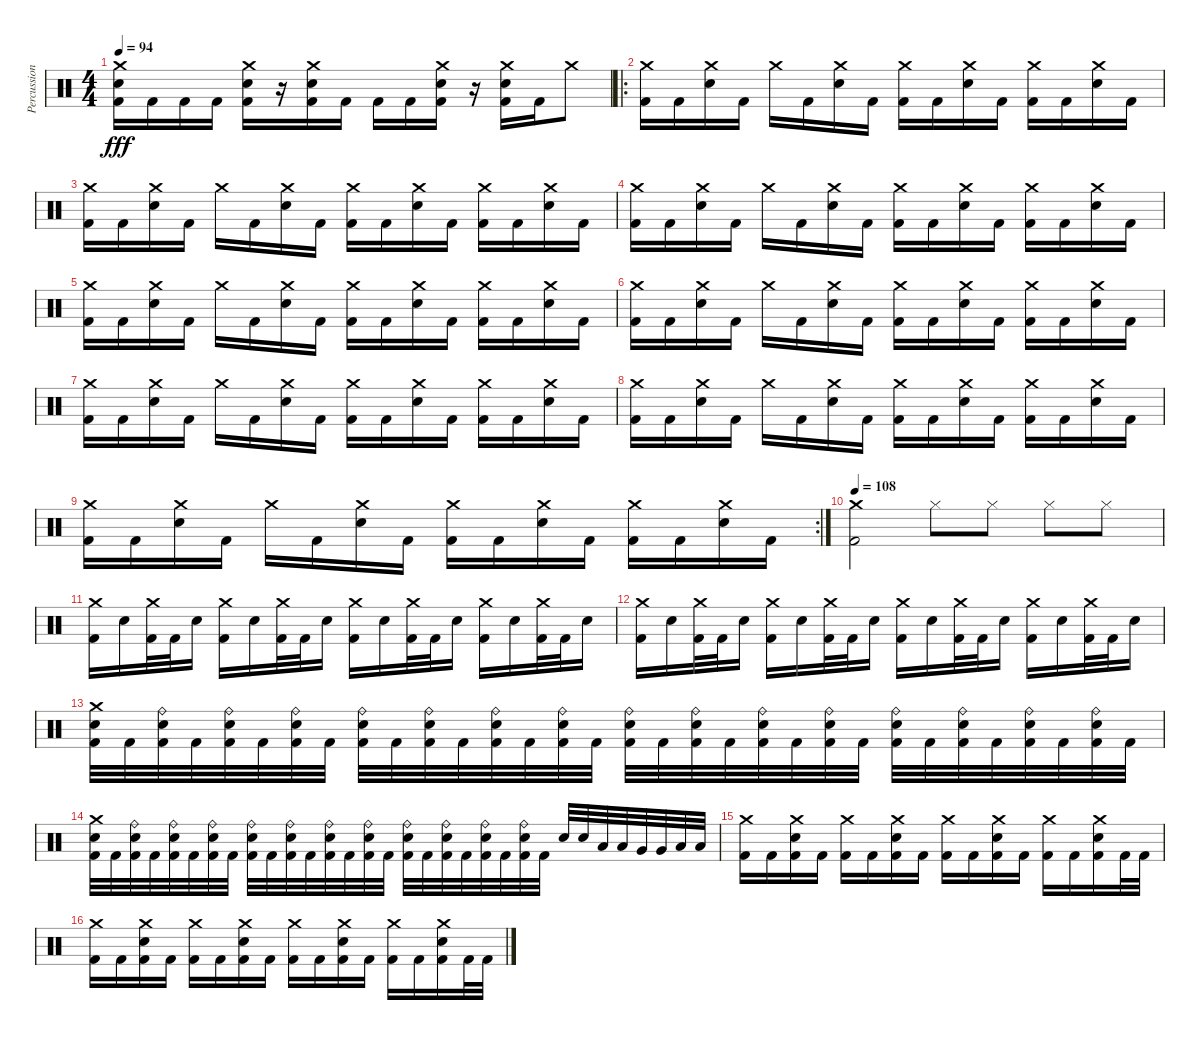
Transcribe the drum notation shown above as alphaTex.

\track ("Percussion" "Percussion") {instrument percussion}
\staff {score}
\articulation defaults
\ts (4 4)
\tempo 94
\clef neutral
\ks c
("Crash medium (hit)" "Electric Snare (hit)" "Kick (hit) 2").16{dy fff} "Kick (hit) 2".16 "Kick (hit) 2".16 "Kick (hit) 2".16 ("Crash medium (hit)" "Electric Snare (hit)" "Kick (hit) 2").16 r.16 ("Crash medium (hit)" "Electric Snare (hit)" "Kick (hit) 2").16 "Kick (hit) 2".16 "Kick (hit) 2".16 "Kick (hit) 2".16 ("Crash medium (hit)" "Electric Snare (hit)" "Kick (hit) 2").16 r.16 ("Crash medium (hit)" "Electric Snare (hit)" "Kick (hit) 2").16 "Kick (hit) 2".16 "Crash medium (hit)".8 |
\ro
("Crash medium (hit)" "Kick (hit) 2").16 "Kick (hit) 2".16 ("Crash medium (hit)" "Electric Snare (hit)").16 "Kick (hit) 2".16 "Crash medium (hit)".16 "Kick (hit) 2".16 ("Crash medium (hit)" "Electric Snare (hit)").16 "Kick (hit) 2".16 ("Crash medium (hit)" "Kick (hit) 2").16 "Kick (hit) 2".16 ("Crash medium (hit)" "Electric Snare (hit)").16 "Kick (hit) 2".16 ("Crash medium (hit)" "Kick (hit) 2").16 "Kick (hit) 2".16 ("Crash medium (hit)" "Electric Snare (hit)").16 "Kick (hit) 2".16 |
("Crash medium (hit)" "Kick (hit) 2").16 "Kick (hit) 2".16 ("Crash medium (hit)" "Electric Snare (hit)").16 "Kick (hit) 2".16 "Crash medium (hit)".16 "Kick (hit) 2".16 ("Crash medium (hit)" "Electric Snare (hit)").16 "Kick (hit) 2".16 ("Crash medium (hit)" "Kick (hit) 2").16 "Kick (hit) 2".16 ("Crash medium (hit)" "Electric Snare (hit)").16 "Kick (hit) 2".16 ("Crash medium (hit)" "Kick (hit) 2").16 "Kick (hit) 2".16 ("Crash medium (hit)" "Electric Snare (hit)").16 "Kick (hit) 2".16 |
("Crash medium (hit)" "Kick (hit) 2").16 "Kick (hit) 2".16 ("Crash medium (hit)" "Electric Snare (hit)").16 "Kick (hit) 2".16 "Crash medium (hit)".16 "Kick (hit) 2".16 ("Crash medium (hit)" "Electric Snare (hit)").16 "Kick (hit) 2".16 ("Crash medium (hit)" "Kick (hit) 2").16 "Kick (hit) 2".16 ("Crash medium (hit)" "Electric Snare (hit)").16 "Kick (hit) 2".16 ("Crash medium (hit)" "Kick (hit) 2").16 "Kick (hit) 2".16 ("Crash medium (hit)" "Electric Snare (hit)").16 "Kick (hit) 2".16 |
("Crash medium (hit)" "Kick (hit) 2").16 "Kick (hit) 2".16 ("Crash medium (hit)" "Electric Snare (hit)").16 "Kick (hit) 2".16 "Crash medium (hit)".16 "Kick (hit) 2".16 ("Crash medium (hit)" "Electric Snare (hit)").16 "Kick (hit) 2".16 ("Crash medium (hit)" "Kick (hit) 2").16 "Kick (hit) 2".16 ("Crash medium (hit)" "Electric Snare (hit)").16 "Kick (hit) 2".16 ("Crash medium (hit)" "Kick (hit) 2").16 "Kick (hit) 2".16 ("Crash medium (hit)" "Electric Snare (hit)").16 "Kick (hit) 2".16 |
("Crash medium (hit)" "Kick (hit) 2").16 "Kick (hit) 2".16 ("Crash medium (hit)" "Electric Snare (hit)").16 "Kick (hit) 2".16 "Crash medium (hit)".16 "Kick (hit) 2".16 ("Crash medium (hit)" "Electric Snare (hit)").16 "Kick (hit) 2".16 ("Crash medium (hit)" "Kick (hit) 2").16 "Kick (hit) 2".16 ("Crash medium (hit)" "Electric Snare (hit)").16 "Kick (hit) 2".16 ("Crash medium (hit)" "Kick (hit) 2").16 "Kick (hit) 2".16 ("Crash medium (hit)" "Electric Snare (hit)").16 "Kick (hit) 2".16 |
("Crash medium (hit)" "Kick (hit) 2").16 "Kick (hit) 2".16 ("Crash medium (hit)" "Electric Snare (hit)").16 "Kick (hit) 2".16 "Crash medium (hit)".16 "Kick (hit) 2".16 ("Crash medium (hit)" "Electric Snare (hit)").16 "Kick (hit) 2".16 ("Crash medium (hit)" "Kick (hit) 2").16 "Kick (hit) 2".16 ("Crash medium (hit)" "Electric Snare (hit)").16 "Kick (hit) 2".16 ("Crash medium (hit)" "Kick (hit) 2").16 "Kick (hit) 2".16 ("Crash medium (hit)" "Electric Snare (hit)").16 "Kick (hit) 2".16 |
("Crash medium (hit)" "Kick (hit) 2").16 "Kick (hit) 2".16 ("Crash medium (hit)" "Electric Snare (hit)").16 "Kick (hit) 2".16 "Crash medium (hit)".16 "Kick (hit) 2".16 ("Crash medium (hit)" "Electric Snare (hit)").16 "Kick (hit) 2".16 ("Crash medium (hit)" "Kick (hit) 2").16 "Kick (hit) 2".16 ("Crash medium (hit)" "Electric Snare (hit)").16 "Kick (hit) 2".16 ("Crash medium (hit)" "Kick (hit) 2").16 "Kick (hit) 2".16 ("Crash medium (hit)" "Electric Snare (hit)").16 "Kick (hit) 2".16 |
\rc 2
("Crash medium (hit)" "Kick (hit) 2").16 "Kick (hit) 2".16 ("Crash medium (hit)" "Electric Snare (hit)").16 "Kick (hit) 2".16 "Crash medium (hit)".16 "Kick (hit) 2".16 ("Crash medium (hit)" "Electric Snare (hit)").16 "Kick (hit) 2".16 ("Crash medium (hit)" "Kick (hit) 2").16 "Kick (hit) 2".16 ("Crash medium (hit)" "Electric Snare (hit)").16 "Kick (hit) 2".16 ("Crash medium (hit)" "Kick (hit) 2").16 "Kick (hit) 2".16 ("Crash medium (hit)" "Electric Snare (hit)").16 "Kick (hit) 2".16 |
\tempo 108
("Crash medium (hit)" "Kick (hit) 2").2 "Hi-Hat (closed)".8 "Hi-Hat (closed)".8 "Hi-Hat (closed)".8 "Hi-Hat (closed)".8 |
("Crash medium (hit)" "Kick (hit) 2").16 "Electric Snare (hit)".16 ("Crash medium (hit)" "Kick (hit) 2").32 "Kick (hit) 2".32 "Electric Snare (hit)".16 ("Crash medium (hit)" "Kick (hit) 2").16 "Electric Snare (hit)".16 ("Crash medium (hit)" "Kick (hit) 2").32 "Kick (hit) 2".32 "Electric Snare (hit)".16 ("Crash medium (hit)" "Kick (hit) 2").16 "Electric Snare (hit)".16 ("Crash medium (hit)" "Kick (hit) 2").32 "Kick (hit) 2".32 "Electric Snare (hit)".16 ("Crash medium (hit)" "Kick (hit) 2").16 "Electric Snare (hit)".16 ("Crash medium (hit)" "Kick (hit) 2").32 "Kick (hit) 2".32 "Electric Snare (hit)".16 |
("Crash medium (hit)" "Kick (hit) 2").16 "Electric Snare (hit)".16 ("Crash medium (hit)" "Kick (hit) 2").32 "Kick (hit) 2".32 "Electric Snare (hit)".16 ("Crash medium (hit)" "Kick (hit) 2").16 "Electric Snare (hit)".16 ("Crash medium (hit)" "Kick (hit) 2").32 "Kick (hit) 2".32 "Electric Snare (hit)".16 ("Crash medium (hit)" "Kick (hit) 2").16 "Electric Snare (hit)".16 ("Crash medium (hit)" "Kick (hit) 2").32 "Kick (hit) 2".32 "Electric Snare (hit)".16 ("Crash medium (hit)" "Kick (hit) 2").16 "Electric Snare (hit)".16 ("Crash medium (hit)" "Kick (hit) 2").32 "Kick (hit) 2".32 "Electric Snare (hit)".16 |
("Crash medium (hit)" "Electric Snare (hit)" "Kick (hit) 2").32 "Kick (hit) 2".32 ("Ride (bell)" "Electric Snare (hit)" "Kick (hit) 2").32 "Kick (hit) 2".32 ("Ride (bell)" "Electric Snare (hit)" "Kick (hit) 2").32 "Kick (hit) 2".32 ("Ride (bell)" "Electric Snare (hit)" "Kick (hit) 2").32 "Kick (hit) 2".32 ("Ride (bell)" "Electric Snare (hit)" "Kick (hit) 2").32 "Kick (hit) 2".32 ("Ride (bell)" "Electric Snare (hit)" "Kick (hit) 2").32 "Kick (hit) 2".32 ("Ride (bell)" "Electric Snare (hit)" "Kick (hit) 2").32 "Kick (hit) 2".32 ("Ride (bell)" "Electric Snare (hit)" "Kick (hit) 2").32 "Kick (hit) 2".32 ("Ride (bell)" "Electric Snare (hit)" "Kick (hit) 2").32 "Kick (hit) 2".32 ("Ride (bell)" "Electric Snare (hit)" "Kick (hit) 2").32 "Kick (hit) 2".32 ("Ride (bell)" "Electric Snare (hit)" "Kick (hit) 2").32 "Kick (hit) 2".32 ("Ride (bell)" "Electric Snare (hit)" "Kick (hit) 2").32 "Kick (hit) 2".32 ("Ride (bell)" "Electric Snare (hit)" "Kick (hit) 2").32 "Kick (hit) 2".32 ("Ride (bell)" "Electric Snare (hit)" "Kick (hit) 2").32 "Kick (hit) 2".32 ("Ride (bell)" "Electric Snare (hit)" "Kick (hit) 2").32 "Kick (hit) 2".32 ("Ride (bell)" "Electric Snare (hit)" "Kick (hit) 2").32 "Kick (hit) 2".32 |
("Crash medium (hit)" "Electric Snare (hit)" "Kick (hit) 2").32 "Kick (hit) 2".32 ("Ride (bell)" "Electric Snare (hit)" "Kick (hit) 2").32 "Kick (hit) 2".32 ("Ride (bell)" "Electric Snare (hit)" "Kick (hit) 2").32 "Kick (hit) 2".32 ("Ride (bell)" "Electric Snare (hit)" "Kick (hit) 2").32 "Kick (hit) 2".32 ("Ride (bell)" "Electric Snare (hit)" "Kick (hit) 2").32 "Kick (hit) 2".32 ("Ride (bell)" "Electric Snare (hit)" "Kick (hit) 2").32 "Kick (hit) 2".32 ("Ride (bell)" "Electric Snare (hit)" "Kick (hit) 2").32 "Kick (hit) 2".32 ("Ride (bell)" "Electric Snare (hit)" "Kick (hit) 2").32 "Kick (hit) 2".32 ("Ride (bell)" "Electric Snare (hit)" "Kick (hit) 2").32 "Kick (hit) 2".32 ("Ride (bell)" "Electric Snare (hit)" "Kick (hit) 2").32 "Kick (hit) 2".32 ("Ride (bell)" "Electric Snare (hit)" "Kick (hit) 2").32 "Kick (hit) 2".32 ("Ride (bell)" "Electric Snare (hit)" "Kick (hit) 2").32 "Kick (hit) 2".32 "Electric Snare (hit)".32 "Electric Snare (hit)".32 "Low Tom (hit)".32 "Low Tom (hit)".32 "Very Low Tom (hit)".32 "Very Low Tom (hit)".32 "Low Floor Tom (hit)".32 "Low Floor Tom (hit)".32 |
("Crash medium (hit)" "Kick (hit) 2").16 "Kick (hit) 2".16 ("Crash medium (hit)" "Electric Snare (hit)" "Kick (hit) 2").16 "Kick (hit) 2".16 ("Crash medium (hit)" "Kick (hit) 2").16 "Kick (hit) 2".16 ("Crash medium (hit)" "Electric Snare (hit)" "Kick (hit) 2").16 "Kick (hit) 2".16 ("Crash medium (hit)" "Kick (hit) 2").16 "Kick (hit) 2".16 ("Crash medium (hit)" "Electric Snare (hit)" "Kick (hit) 2").16 "Kick (hit) 2".16 ("Crash medium (hit)" "Kick (hit) 2").16 "Kick (hit) 2".16 ("Crash medium (hit)" "Electric Snare (hit)" "Kick (hit) 2").16 "Kick (hit) 2".32 "Kick (hit) 2".32 |
("Crash medium (hit)" "Kick (hit) 2").16 "Kick (hit) 2".16 ("Crash medium (hit)" "Electric Snare (hit)" "Kick (hit) 2").16 "Kick (hit) 2".16 ("Crash medium (hit)" "Kick (hit) 2").16 "Kick (hit) 2".16 ("Crash medium (hit)" "Electric Snare (hit)" "Kick (hit) 2").16 "Kick (hit) 2".16 ("Crash medium (hit)" "Kick (hit) 2").16 "Kick (hit) 2".16 ("Crash medium (hit)" "Electric Snare (hit)" "Kick (hit) 2").16 "Kick (hit) 2".16 ("Crash medium (hit)" "Kick (hit) 2").16 "Kick (hit) 2".16 ("Crash medium (hit)" "Electric Snare (hit)" "Kick (hit) 2").16 "Kick (hit) 2".32 "Kick (hit) 2".32
